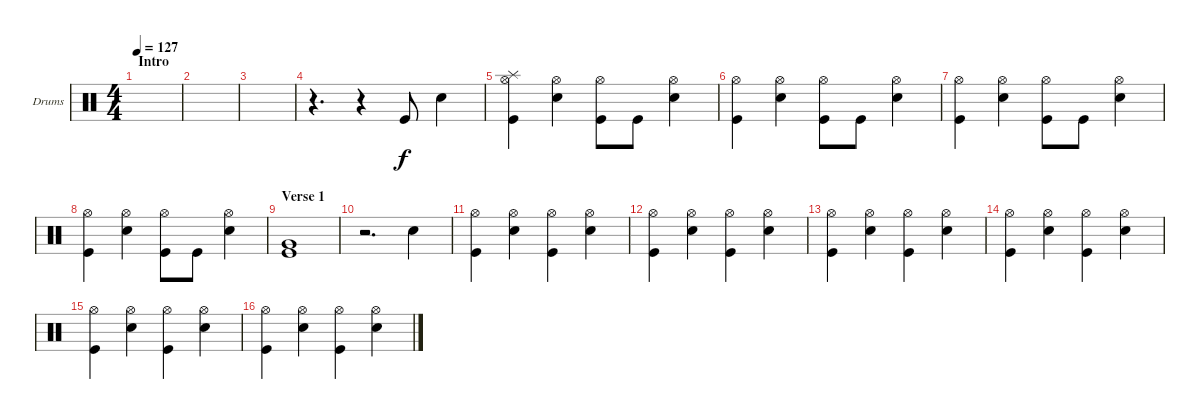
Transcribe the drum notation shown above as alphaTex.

\defaultSystemsLayout 4
\bracketExtendMode groupsimilarinstruments
\firstSystemTrackNameOrientation horizontal
\otherSystemsTrackNameOrientation horizontal
\track ("Drums 2" "Drums") {instrument percussion}
\staff {score}
\articulation defaults
\ts (4 4)
\section ("" "Intro")
\tempo 127
\clef neutral
\ks c
|
|
|
r.4{d} r.4 "Kick (hit)".8 "Snare (hit) 2".4 |
("Kick (hit)" "Splash (hit)" "Hi-Hat (open)").4 ("Hi-Hat (open)" "Snare (hit) 2").4 ("Hi-Hat (open)" "Kick (hit)").8 "Kick (hit)".8 ("Snare (hit) 2" "Hi-Hat (open)").4 |
("Kick (hit)" "Hi-Hat (open)").4 ("Hi-Hat (open)" "Snare (hit) 2").4 ("Hi-Hat (open)" "Kick (hit)").8 "Kick (hit)".8 ("Snare (hit) 2" "Hi-Hat (open)").4 |
("Kick (hit)" "Hi-Hat (open)").4 ("Hi-Hat (open)" "Snare (hit) 2").4 ("Hi-Hat (open)" "Kick (hit)").8 "Kick (hit)".8 ("Snare (hit) 2" "Hi-Hat (open)").4 |
("Kick (hit)" "Hi-Hat (open)").4 ("Hi-Hat (open)" "Snare (hit) 2").4 ("Hi-Hat (open)" "Kick (hit)").8 "Kick (hit)".8 ("Snare (hit) 2" "Hi-Hat (open)").4 |
\section ("" "Verse 1")
("Very Low Tom (hit)" "Kick (hit)").1 |
r.2{d} "Snare (hit) 2".4 |
("Kick (hit)" "Hi-Hat (open)").4 ("Hi-Hat (open)" "Snare (hit) 2").4 ("Hi-Hat (open)" "Kick (hit)").4 ("Hi-Hat (open)" "Snare (hit) 2").4 |
("Kick (hit)" "Hi-Hat (open)").4 ("Hi-Hat (open)" "Snare (hit) 2").4 ("Hi-Hat (open)" "Kick (hit)").4 ("Hi-Hat (open)" "Snare (hit) 2").4 |
("Kick (hit)" "Hi-Hat (open)").4 ("Hi-Hat (open)" "Snare (hit) 2").4 ("Hi-Hat (open)" "Kick (hit)").4 ("Hi-Hat (open)" "Snare (hit) 2").4 |
("Kick (hit)" "Hi-Hat (open)").4 ("Hi-Hat (open)" "Snare (hit) 2").4 ("Hi-Hat (open)" "Kick (hit)").4 ("Hi-Hat (open)" "Snare (hit) 2").4 |
("Kick (hit)" "Hi-Hat (open)").4 ("Hi-Hat (open)" "Snare (hit) 2").4 ("Hi-Hat (open)" "Kick (hit)").4 ("Hi-Hat (open)" "Snare (hit) 2").4 |
("Kick (hit)" "Hi-Hat (open)").4 ("Hi-Hat (open)" "Snare (hit) 2").4 ("Hi-Hat (open)" "Kick (hit)").4 ("Hi-Hat (open)" "Snare (hit) 2").4
